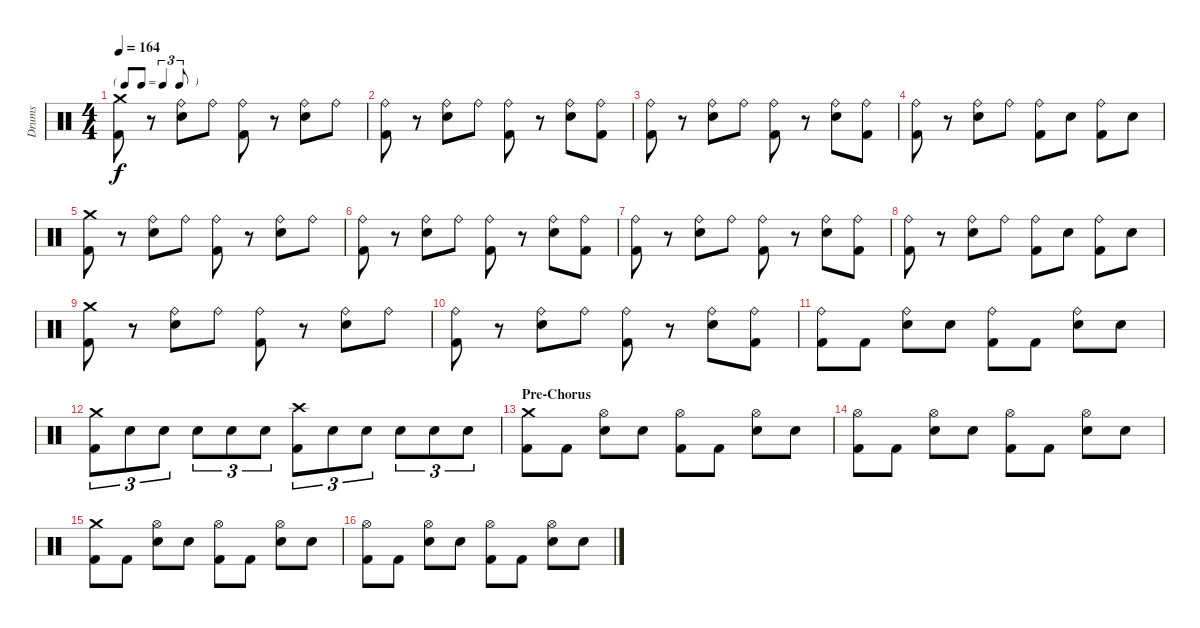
\track ("Drums" "Drums") {instrument percussion}
\staff {score}
\articulation defaults
\ts (4 4)
\tf triplet8th
\tempo 164
\clef neutral
\ks c
("Crash medium (hit)" "Kick (hit) 2").8{dy f} r.8 ("Ride (bell)" "Electric Snare (hit)").8 "Ride (bell)".8 ("Ride (bell)" "Kick (hit) 2").8 r.8 ("Ride (bell)" "Electric Snare (hit)").8 "Ride (bell)".8 |
("Ride (bell)" "Kick (hit) 2").8 r.8 ("Ride (bell)" "Electric Snare (hit)").8 "Ride (bell)".8 ("Ride (bell)" "Kick (hit) 2").8 r.8 ("Ride (bell)" "Electric Snare (hit)").8 ("Ride (bell)" "Kick (hit) 2").8 |
("Ride (bell)" "Kick (hit) 2").8 r.8 ("Ride (bell)" "Electric Snare (hit)").8 "Ride (bell)".8 ("Ride (bell)" "Kick (hit) 2").8 r.8 ("Ride (bell)" "Electric Snare (hit)").8 ("Ride (bell)" "Kick (hit) 2").8 |
("Ride (bell)" "Kick (hit) 2").8 r.8 ("Ride (bell)" "Electric Snare (hit)").8 "Ride (bell)".8 ("Ride (bell)" "Kick (hit) 2").8 "Electric Snare (hit)".8 ("Ride (bell)" "Kick (hit) 2").8 "Electric Snare (hit)".8 |
("Crash medium (hit)" "Kick (hit) 2").8 r.8 ("Ride (bell)" "Electric Snare (hit)").8 "Ride (bell)".8 ("Ride (bell)" "Kick (hit) 2").8 r.8 ("Ride (bell)" "Electric Snare (hit)").8 "Ride (bell)".8 |
("Ride (bell)" "Kick (hit) 2").8 r.8 ("Ride (bell)" "Electric Snare (hit)").8 "Ride (bell)".8 ("Ride (bell)" "Kick (hit) 2").8 r.8 ("Ride (bell)" "Electric Snare (hit)").8 ("Ride (bell)" "Kick (hit) 2").8 |
("Ride (bell)" "Kick (hit) 2").8 r.8 ("Ride (bell)" "Electric Snare (hit)").8 "Ride (bell)".8 ("Ride (bell)" "Kick (hit) 2").8 r.8 ("Ride (bell)" "Electric Snare (hit)").8 ("Ride (bell)" "Kick (hit) 2").8 |
("Ride (bell)" "Kick (hit) 2").8 r.8 ("Ride (bell)" "Electric Snare (hit)").8 "Ride (bell)".8 ("Ride (bell)" "Kick (hit) 2").8 "Electric Snare (hit)".8 ("Ride (bell)" "Kick (hit) 2").8 "Electric Snare (hit)".8 |
("Crash medium (hit)" "Kick (hit) 2").8 r.8 ("Ride (bell)" "Electric Snare (hit)").8 "Ride (bell)".8 ("Ride (bell)" "Kick (hit) 2").8 r.8 ("Ride (bell)" "Electric Snare (hit)").8 "Ride (bell)".8 |
("Ride (bell)" "Kick (hit) 2").8 r.8 ("Ride (bell)" "Electric Snare (hit)").8 "Ride (bell)".8 ("Ride (bell)" "Kick (hit) 2").8 r.8 ("Ride (bell)" "Electric Snare (hit)").8 ("Ride (bell)" "Kick (hit) 2").8 |
("Ride (bell)" "Kick (hit) 2").8 "Kick (hit) 2".8 ("Ride (bell)" "Electric Snare (hit)").8 "Electric Snare (hit)".8 ("Ride (bell)" "Kick (hit) 2").8 "Kick (hit) 2".8 ("Ride (bell)" "Electric Snare (hit)").8 "Electric Snare (hit)".8 |
("Crash medium (hit)" "Kick (hit) 2").8{tu (3 2)} "Electric Snare (hit)".8{tu (3 2)} "Electric Snare (hit)".8{tu (3 2)} "Electric Snare (hit)".8{tu (3 2)} "Electric Snare (hit)".8{tu (3 2)} "Electric Snare (hit)".8{tu (3 2)} ("Crash high (hit)" "Kick (hit) 2").8{tu (3 2)} "Electric Snare (hit)".8{tu (3 2)} "Electric Snare (hit)".8{tu (3 2)} "Electric Snare (hit)".8{tu (3 2)} "Electric Snare (hit)".8{tu (3 2)} "Electric Snare (hit)".8{tu (3 2)} |
\section ("" "Pre-Chorus")
("Crash medium (hit)" "Kick (hit) 2").8 "Kick (hit) 2".8 ("Hi-Hat (open)" "Electric Snare (hit)").8 "Electric Snare (hit)".8 ("Hi-Hat (open)" "Kick (hit) 2").8 "Kick (hit) 2".8 ("Hi-Hat (open)" "Electric Snare (hit)").8 "Electric Snare (hit)".8 |
("Hi-Hat (open)" "Kick (hit) 2").8 "Kick (hit) 2".8 ("Hi-Hat (open)" "Electric Snare (hit)").8 "Electric Snare (hit)".8 ("Hi-Hat (open)" "Kick (hit) 2").8 "Kick (hit) 2".8 ("Hi-Hat (open)" "Electric Snare (hit)").8 "Electric Snare (hit)".8 |
("Crash medium (hit)" "Kick (hit) 2").8 "Kick (hit) 2".8 ("Hi-Hat (open)" "Electric Snare (hit)").8 "Electric Snare (hit)".8 ("Hi-Hat (open)" "Kick (hit) 2").8 "Kick (hit) 2".8 ("Hi-Hat (open)" "Electric Snare (hit)").8 "Electric Snare (hit)".8 |
("Hi-Hat (open)" "Kick (hit) 2").8 "Kick (hit) 2".8 ("Hi-Hat (open)" "Electric Snare (hit)").8 "Electric Snare (hit)".8 ("Hi-Hat (open)" "Kick (hit) 2").8 "Kick (hit) 2".8 ("Hi-Hat (open)" "Electric Snare (hit)").8 "Electric Snare (hit)".8
